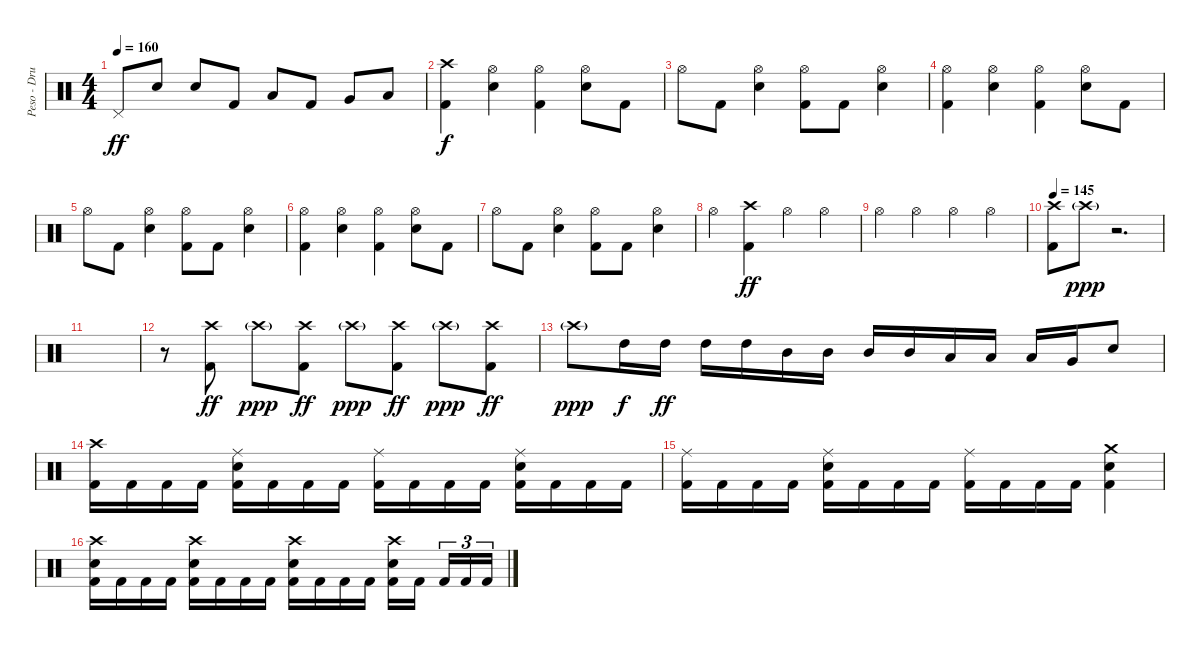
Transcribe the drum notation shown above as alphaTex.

\track ("Peso - Drums" "Peso - Dru") {instrument percussion}
\staff {score}
\articulation defaults
\ts (4 4)
\tempo 160
\clef neutral
\ks c "Pedal Hi-Hat (hit)".8{dy ff} "Electric Snare (hit)".8 "Electric Snare (hit)".8 "Kick (hit) 2".8 "Low Tom (hit)".8 "Kick (hit) 2".8 "Very Low Tom (hit)".8 "Low Floor Tom (hit)".8
|
("Crash high (hit)" "Kick (hit) 2").4{dy f} ("Hi-Hat (open)" "Electric Snare (hit)").4 ("Hi-Hat (open)" "Kick (hit) 2").4 ("Hi-Hat (open)" "Electric Snare (hit)").8 "Kick (hit) 2".8 |
"Hi-Hat (open)".8 "Kick (hit) 2".8 ("Hi-Hat (open)" "Electric Snare (hit)").4 ("Hi-Hat (open)" "Kick (hit) 2").8 "Kick (hit) 2".8 ("Hi-Hat (open)" "Electric Snare (hit)").4 |
("Hi-Hat (open)" "Kick (hit) 2").4 ("Hi-Hat (open)" "Electric Snare (hit)").4 ("Hi-Hat (open)" "Kick (hit) 2").4 ("Hi-Hat (open)" "Electric Snare (hit)").8 "Kick (hit) 2".8 |
"Hi-Hat (open)".8 "Kick (hit) 2".8 ("Hi-Hat (open)" "Electric Snare (hit)").4 ("Hi-Hat (open)" "Kick (hit) 2").8 "Kick (hit) 2".8 ("Hi-Hat (open)" "Electric Snare (hit)").4 |
("Hi-Hat (open)" "Kick (hit) 2").4 ("Hi-Hat (open)" "Electric Snare (hit)").4 ("Hi-Hat (open)" "Kick (hit) 2").4 ("Hi-Hat (open)" "Electric Snare (hit)").8 "Kick (hit) 2".8 |
"Hi-Hat (open)".8 "Kick (hit) 2".8 ("Hi-Hat (open)" "Electric Snare (hit)").4 ("Hi-Hat (open)" "Kick (hit) 2").8 "Kick (hit) 2".8 ("Hi-Hat (open)" "Electric Snare (hit)").4 |
"Hi-Hat (open)".4 ("Crash high (hit)" "Kick (hit) 2").4{dy ff} "Hi-Hat (open)".4 "Hi-Hat (open)".4 |
"Hi-Hat (open)".4 "Hi-Hat (open)".4 "Hi-Hat (open)".4 "Hi-Hat (open)".4 |
\tempo 145
("Crash high (hit)" "Kick (hit) 2").8 "Crash high (hit)"{g}.8{dy ppp} r.2{d} |
|
r.8 ("Crash high (hit)" "Kick (hit) 2").8{dy ff} "Crash high (hit)"{g}.8{dy ppp} ("Crash high (hit)" "Kick (hit) 2").8{dy ff} "Crash high (hit)"{g}.8{dy ppp} ("Crash high (hit)" "Kick (hit) 2").8{dy ff} "Crash high (hit)"{g}.8{dy ppp} ("Crash high (hit)" "Kick (hit) 2").8{dy ff} |
"Crash high (hit)"{g}.8{dy ppp} "High Tom (hit)".16{dy f} "High Tom (hit)".16{dy ff} "High Tom (hit)".16 "High Tom (hit)".16 "Mid Tom (hit)".16 "Mid Tom (hit)".16 "Mid Tom (hit)".16 "Mid Tom (hit)".16 "Low Tom (hit)".16 "Low Tom (hit)".16 "Low Tom (hit)".16 "Very Low Tom (hit)".16 "Electric Snare (hit)".8 |
("Crash high (hit)" "Kick (hit) 2").16 "Kick (hit) 2".16 "Kick (hit) 2".16 "Kick (hit) 2".16 ("Ride (middle)" "Electric Snare (hit)" "Kick (hit) 2").16 "Kick (hit) 2".16 "Kick (hit) 2".16 "Kick (hit) 2".16 ("Ride (middle)" "Kick (hit) 2").16 "Kick (hit) 2".16 "Kick (hit) 2".16 "Kick (hit) 2".16 ("Ride (middle)" "Electric Snare (hit)" "Kick (hit) 2").16 "Kick (hit) 2".16 "Kick (hit) 2".16 "Kick (hit) 2".16 |
("Ride (middle)" "Kick (hit) 2").16 "Kick (hit) 2".16 "Kick (hit) 2".16 "Kick (hit) 2".16 ("Ride (middle)" "Electric Snare (hit)" "Kick (hit) 2").16 "Kick (hit) 2".16 "Kick (hit) 2".16 "Kick (hit) 2".16 ("Ride (middle)" "Kick (hit) 2").16 "Kick (hit) 2".16 "Kick (hit) 2".16 "Kick (hit) 2".16 ("Crash medium (hit)" "Electric Snare (hit)" "Kick (hit) 2").4 |
("Crash high (hit)" "Electric Snare (hit)" "Kick (hit) 2").16 "Kick (hit) 2".16 "Kick (hit) 2".16 "Kick (hit) 2".16 ("Crash high (hit)" "Electric Snare (hit)" "Kick (hit) 2").16 "Kick (hit) 2".16 "Kick (hit) 2".16 "Kick (hit) 2".16 ("Crash high (hit)" "Electric Snare (hit)" "Kick (hit) 2").16 "Kick (hit) 2".16 "Kick (hit) 2".16 "Kick (hit) 2".16 ("Crash high (hit)" "Electric Snare (hit)" "Kick (hit) 2").16 "Kick (hit) 2".16{beam splitsecondary} "Kick (hit) 2".16{tu (3 2)} "Kick (hit) 2".16{tu (3 2)} "Kick (hit) 2".16{tu (3 2)}
